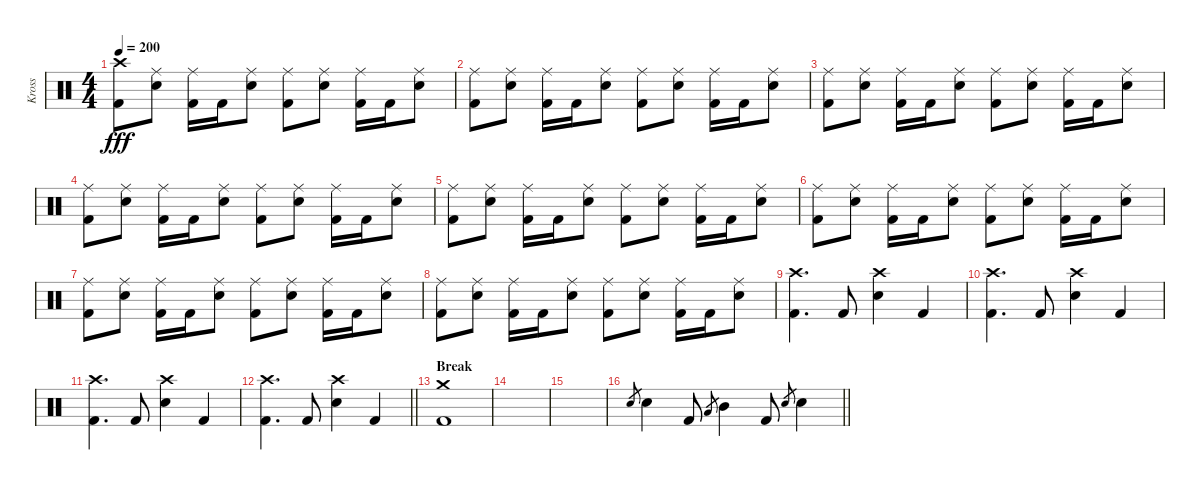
\track ("Kross" "Kross") {instrument percussion}
\staff {score}
\articulation defaults
\ts (4 4)
\tempo 200
\clef neutral
\ks c
("Crash high (hit)" "Kick (hit) 2").8{dy fff} ("Ride (middle)" "Electric Snare (hit)").8 ("Ride (middle)" "Kick (hit) 2").16 "Kick (hit) 2".16 ("Ride (middle)" "Electric Snare (hit)").8 ("Ride (middle)" "Kick (hit) 2").8 ("Ride (middle)" "Electric Snare (hit)").8 ("Ride (middle)" "Kick (hit) 2").16 "Kick (hit) 2".16 ("Ride (middle)" "Electric Snare (hit)").8 |
("Ride (middle)" "Kick (hit) 2").8 ("Ride (middle)" "Electric Snare (hit)").8 ("Ride (middle)" "Kick (hit) 2").16 "Kick (hit) 2".16 ("Ride (middle)" "Electric Snare (hit)").8 ("Ride (middle)" "Kick (hit) 2").8 ("Ride (middle)" "Electric Snare (hit)").8 ("Ride (middle)" "Kick (hit) 2").16 "Kick (hit) 2".16 ("Ride (middle)" "Electric Snare (hit)").8 |
("Ride (middle)" "Kick (hit) 2").8 ("Ride (middle)" "Electric Snare (hit)").8 ("Ride (middle)" "Kick (hit) 2").16 "Kick (hit) 2".16 ("Ride (middle)" "Electric Snare (hit)").8 ("Ride (middle)" "Kick (hit) 2").8 ("Ride (middle)" "Electric Snare (hit)").8 ("Ride (middle)" "Kick (hit) 2").16 "Kick (hit) 2".16 ("Ride (middle)" "Electric Snare (hit)").8 |
("Ride (middle)" "Kick (hit) 2").8 ("Ride (middle)" "Electric Snare (hit)").8 ("Ride (middle)" "Kick (hit) 2").16 "Kick (hit) 2".16 ("Ride (middle)" "Electric Snare (hit)").8 ("Ride (middle)" "Kick (hit) 2").8 ("Ride (middle)" "Electric Snare (hit)").8 ("Ride (middle)" "Kick (hit) 2").16 "Kick (hit) 2".16 ("Ride (middle)" "Electric Snare (hit)").8 |
("Ride (middle)" "Kick (hit) 2").8 ("Ride (middle)" "Electric Snare (hit)").8 ("Ride (middle)" "Kick (hit) 2").16 "Kick (hit) 2".16 ("Ride (middle)" "Electric Snare (hit)").8 ("Ride (middle)" "Kick (hit) 2").8 ("Ride (middle)" "Electric Snare (hit)").8 ("Ride (middle)" "Kick (hit) 2").16 "Kick (hit) 2".16 ("Ride (middle)" "Electric Snare (hit)").8 |
("Ride (middle)" "Kick (hit) 2").8 ("Ride (middle)" "Electric Snare (hit)").8 ("Ride (middle)" "Kick (hit) 2").16 "Kick (hit) 2".16 ("Ride (middle)" "Electric Snare (hit)").8 ("Ride (middle)" "Kick (hit) 2").8 ("Ride (middle)" "Electric Snare (hit)").8 ("Ride (middle)" "Kick (hit) 2").16 "Kick (hit) 2".16 ("Ride (middle)" "Electric Snare (hit)").8 |
("Ride (middle)" "Kick (hit) 2").8 ("Ride (middle)" "Electric Snare (hit)").8 ("Ride (middle)" "Kick (hit) 2").16 "Kick (hit) 2".16 ("Ride (middle)" "Electric Snare (hit)").8 ("Ride (middle)" "Kick (hit) 2").8 ("Ride (middle)" "Electric Snare (hit)").8 ("Ride (middle)" "Kick (hit) 2").16 "Kick (hit) 2".16 ("Ride (middle)" "Electric Snare (hit)").8 |
("Ride (middle)" "Kick (hit) 2").8 ("Ride (middle)" "Electric Snare (hit)").8 ("Ride (middle)" "Kick (hit) 2").16 "Kick (hit) 2".16 ("Ride (middle)" "Electric Snare (hit)").8 ("Ride (middle)" "Kick (hit) 2").8 ("Ride (middle)" "Electric Snare (hit)").8 ("Ride (middle)" "Kick (hit) 2").16 "Kick (hit) 2".16 ("Ride (middle)" "Electric Snare (hit)").8 |
("Crash high (hit)" "Kick (hit) 2").4{d} "Kick (hit) 2".8 ("Crash high (hit)" "Electric Snare (hit)").4 "Kick (hit) 2".4 |
("Crash high (hit)" "Kick (hit) 2").4{d} "Kick (hit) 2".8 ("Crash high (hit)" "Electric Snare (hit)").4 "Kick (hit) 2".4 |
("Crash high (hit)" "Kick (hit) 2").4{d} "Kick (hit) 2".8 ("Crash high (hit)" "Electric Snare (hit)").4 "Kick (hit) 2".4 |
\barLineRight lightlight
("Crash high (hit)" "Kick (hit) 2").4{d} "Kick (hit) 2".8 ("Crash high (hit)" "Electric Snare (hit)").4 "Kick (hit) 2".4 |
\section ("" "Break")
("Crash medium (hit)" "Kick (hit) 2").1 |
|
|
\barLineRight lightlight "Electric Snare (hit)".8{gr} "Electric Snare (hit)".4 "Kick (hit) 2".8 "Low Tom (hit)".8{gr} "Mid Tom (hit)".4 "Kick (hit) 2".8 "Electric Snare (hit)".8{gr} "Electric Snare (hit)".4
